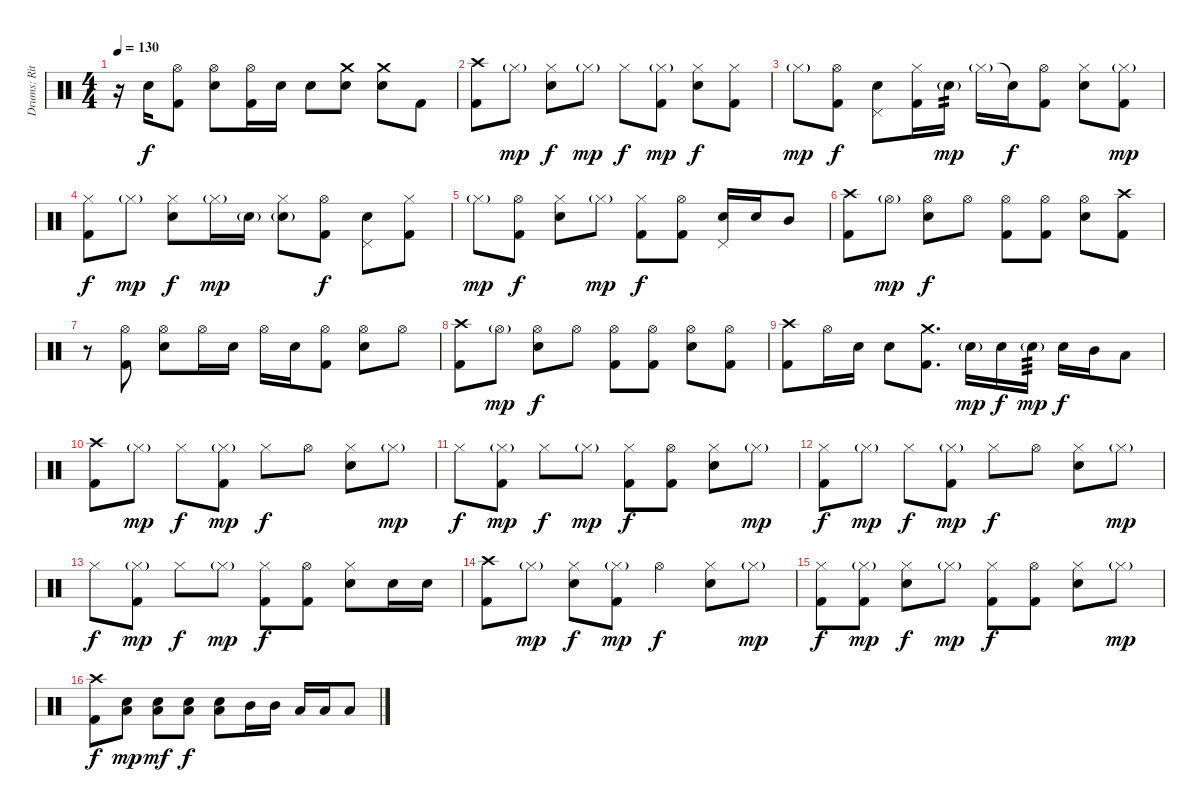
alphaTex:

\track ("Drums: Ritsu Tainaka" "Drums: Rit") {instrument percussion}
\staff {score}
\articulation defaults
\ts (4 4)
\tempo 130
\clef neutral
\ks c
r.16{dy f} "Electric Snare (hit)".16 ("Hi-Hat (open)" "Kick (hit) 2").8 ("Hi-Hat (open)" "Electric Snare (hit)").8 ("Hi-Hat (open)" "Kick (hit) 2").16 "Electric Snare (hit)".16 "Electric Snare (hit)".8 ("Crash medium (hit)" "Electric Snare (hit)").8 ("Crash medium (hit)" "Electric Snare (hit)").8 "Kick (hit) 2".8 |
("Crash high (hit)" "Kick (hit) 2").8 "Hi-Hat (closed)"{g}.8{dy mp} ("Hi-Hat (closed)" "Electric Snare (hit)").8{dy f} "Hi-Hat (closed)"{g}.8{dy mp} "Hi-Hat (closed)".8{dy f} ("Hi-Hat (closed)"{g} "Kick (hit) 2").8{dy mp} ("Hi-Hat (closed)" "Electric Snare (hit)").8{dy f} ("Hi-Hat (closed)" "Kick (hit) 2").8 |
"Hi-Hat (closed)"{g}.8{dy mp} ("Hi-Hat (open)" "Kick (hit) 2").8{dy f} ("Pedal Hi-Hat (hit)" "Electric Snare (hit)").8 ("Hi-Hat (closed)" "Kick (hit) 2").16 "Electric Snare (hit)"{g}.16{tp 2 dy mp} "Hi-Hat (closed)"{g}.16 "Snare (hit)"{t}.16{dy f} ("Hi-Hat (open)" "Kick (hit) 2").8 ("Hi-Hat (closed)" "Electric Snare (hit)").8 ("Hi-Hat (closed)"{g} "Kick (hit) 2").8{dy mp} |
("Hi-Hat (closed)" "Kick (hit) 2").8{dy f} "Hi-Hat (closed)"{g}.8{dy mp} ("Hi-Hat (closed)" "Electric Snare (hit)").8{dy f} "Hi-Hat (closed)"{g}.16{dy mp} "Electric Snare (hit)"{g}.16 ("Hi-Hat (closed)" "Electric Snare (hit)"{g}).8 ("Hi-Hat (open)" "Kick (hit) 2").8{dy f} ("Pedal Hi-Hat (hit)" "Electric Snare (hit)").8 ("Hi-Hat (closed)" "Kick (hit) 2").8 |
"Hi-Hat (closed)"{g}.8{dy mp} ("Hi-Hat (open)" "Kick (hit) 2").8{dy f} ("Hi-Hat (closed)" "Electric Snare (hit)").8 "Hi-Hat (closed)"{g}.8{dy mp} ("Hi-Hat (closed)" "Kick (hit) 2").8{dy f} ("Hi-Hat (open)" "Kick (hit) 2").8 ("Pedal Hi-Hat (hit)" "Electric Snare (hit)").16 "Electric Snare (hit)".16 "Mid Tom (hit)".8 |
("Crash high (hit)" "Kick (hit) 2").8 "Hi-Hat (open)"{g}.8{dy mp} ("Hi-Hat (open)" "Electric Snare (hit)").8{dy f} "Hi-Hat (open)".8 ("Hi-Hat (open)" "Kick (hit) 2").8 ("Hi-Hat (open)" "Kick (hit) 2").8 ("Hi-Hat (open)" "Electric Snare (hit)").8 ("Crash high (hit)" "Kick (hit) 2").8 |
r.8 ("Hi-Hat (open)" "Kick (hit) 2").8 ("Hi-Hat (open)" "Electric Snare (hit)").8 "Hi-Hat (open)".16 "Electric Snare (hit)".16 "Hi-Hat (open)".16 "Electric Snare (hit)".16 ("Hi-Hat (open)" "Kick (hit) 2").8 ("Hi-Hat (open)" "Electric Snare (hit)").8 "Hi-Hat (open)".8 |
("Crash high (hit)" "Kick (hit) 2").8 "Hi-Hat (open)"{g}.8{dy mp} ("Hi-Hat (open)" "Electric Snare (hit)").8{dy f} "Hi-Hat (open)".8 ("Hi-Hat (open)" "Kick (hit) 2").8 ("Hi-Hat (open)" "Kick (hit) 2").8 ("Hi-Hat (open)" "Electric Snare (hit)").8 ("Hi-Hat (open)" "Kick (hit) 2").8 |
("Crash high (hit)" "Kick (hit) 2").8 "Hi-Hat (open)".16 "Electric Snare (hit)".16 "Electric Snare (hit)".8 ("Crash medium (hit)" "Kick (hit) 2").8{d} "Electric Snare (hit)"{g}.16{dy mp} "Electric Snare (hit)".16{dy f} "Electric Snare (hit)"{g}.16{tp 3 dy mp} "Electric Snare (hit)".16{dy f} "Mid Tom (hit)".16 "Low Tom (hit)".8 |
("Crash high (hit)" "Kick (hit) 2").8 "Hi-Hat (closed)"{g}.8{dy mp} "Hi-Hat (closed)".8{dy f} ("Hi-Hat (closed)"{g} "Kick (hit) 2").8{dy mp} "Hi-Hat (closed)".8{dy f} "Hi-Hat (open)".8 ("Hi-Hat (closed)" "Electric Snare (hit)").8 "Hi-Hat (closed)"{g}.8{dy mp} |
"Hi-Hat (closed)".8{dy f} ("Hi-Hat (closed)"{g} "Kick (hit) 2").8{dy mp} "Hi-Hat (closed)".8{dy f} "Hi-Hat (closed)"{g}.8{dy mp} ("Hi-Hat (closed)" "Kick (hit) 2").8{dy f} ("Hi-Hat (open)" "Kick (hit) 2").8 ("Hi-Hat (closed)" "Electric Snare (hit)").8 "Hi-Hat (closed)"{g}.8{dy mp} |
("Hi-Hat (closed)" "Kick (hit) 2").8{dy f} "Hi-Hat (closed)"{g}.8{dy mp} "Hi-Hat (closed)".8{dy f} ("Hi-Hat (closed)"{g} "Kick (hit) 2").8{dy mp} "Hi-Hat (closed)".8{dy f} "Hi-Hat (open)".8 ("Hi-Hat (closed)" "Electric Snare (hit)").8 "Hi-Hat (closed)"{g}.8{dy mp} |
"Hi-Hat (closed)".8{dy f} ("Hi-Hat (closed)"{g} "Kick (hit) 2").8{dy mp} "Hi-Hat (closed)".8{dy f} "Hi-Hat (closed)"{g}.8{dy mp} ("Hi-Hat (closed)" "Kick (hit) 2").8{dy f} ("Hi-Hat (open)" "Kick (hit) 2").8 ("Hi-Hat (closed)" "Electric Snare (hit)").8 "Electric Snare (hit)".16 "Electric Snare (hit)".16 |
("Crash high (hit)" "Kick (hit) 2").8 "Hi-Hat (closed)"{g}.8{dy mp} ("Hi-Hat (closed)" "Electric Snare (hit)").8{dy f} ("Hi-Hat (closed)"{g} "Kick (hit) 2").8{dy mp} "Hi-Hat (open)".4{dy f} ("Hi-Hat (closed)" "Electric Snare (hit)").8 "Hi-Hat (closed)"{g}.8{dy mp} |
("Hi-Hat (closed)" "Kick (hit) 2").8{dy f} ("Hi-Hat (closed)"{g} "Kick (hit) 2").8{dy mp} ("Hi-Hat (closed)" "Electric Snare (hit)").8{dy f} "Hi-Hat (closed)"{g}.8{dy mp} ("Hi-Hat (closed)" "Kick (hit) 2").8{dy f} ("Hi-Hat (open)" "Kick (hit) 2").8 ("Hi-Hat (closed)" "Electric Snare (hit)").8 "Hi-Hat (closed)"{g}.8{dy mp} |
("Crash high (hit)" "Kick (hit) 2").8{dy f} ("Electric Snare (hit)" "Low Floor Tom (hit)").8{dy mp} ("Electric Snare (hit)" "Low Floor Tom (hit)").8{dy mf} ("Electric Snare (hit)" "Low Floor Tom (hit)").8{dy f} ("Electric Snare (hit)" "Low Floor Tom (hit)").8 "Mid Tom (hit)".16 "Mid Tom (hit)".16 "Low Tom (hit)".16 "Low Tom (hit)".16 "Low Floor Tom (hit)".8
